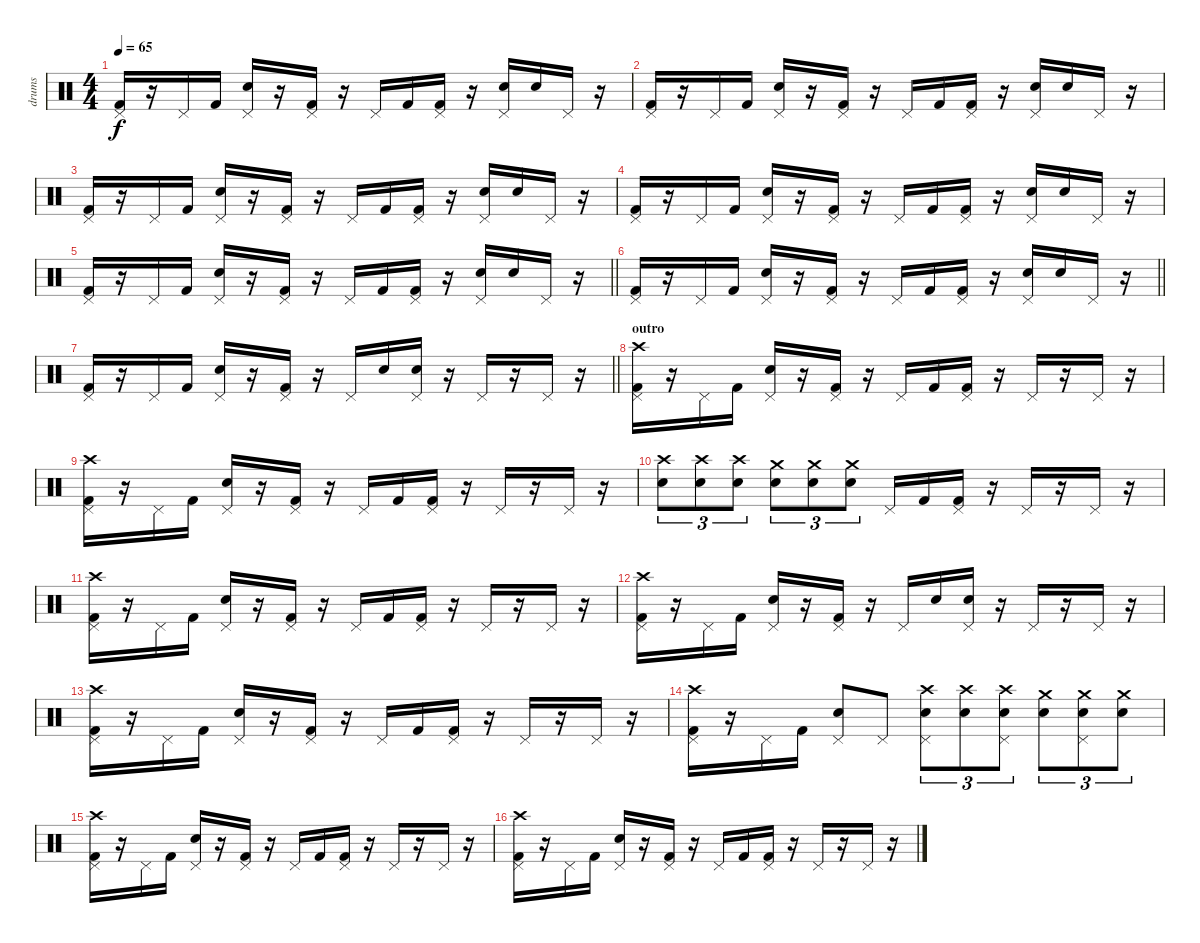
\track ("drums" "drums") {instrument percussion}
\staff {score}
\articulation defaults
\ts (4 4)
\tempo 65
\clef neutral
\ks c
("Kick (hit) 2" "Pedal Hi-Hat (hit)").16{dy f} r.16 "Pedal Hi-Hat (hit)".16 "Kick (hit) 2".16 ("Electric Snare (hit)" "Pedal Hi-Hat (hit)").16 r.16 ("Kick (hit) 2" "Pedal Hi-Hat (hit)").16 r.16 "Pedal Hi-Hat (hit)".16 "Kick (hit) 2".16 ("Kick (hit) 2" "Pedal Hi-Hat (hit)").16 r.16 ("Electric Snare (hit)" "Pedal Hi-Hat (hit)").16 "Electric Snare (hit)".16 "Pedal Hi-Hat (hit)".16 r.16 |
("Kick (hit) 2" "Pedal Hi-Hat (hit)").16 r.16 "Pedal Hi-Hat (hit)".16 "Kick (hit) 2".16 ("Electric Snare (hit)" "Pedal Hi-Hat (hit)").16 r.16 ("Kick (hit) 2" "Pedal Hi-Hat (hit)").16 r.16 "Pedal Hi-Hat (hit)".16 "Kick (hit) 2".16 ("Kick (hit) 2" "Pedal Hi-Hat (hit)").16 r.16 ("Electric Snare (hit)" "Pedal Hi-Hat (hit)").16 "Electric Snare (hit)".16 "Pedal Hi-Hat (hit)".16 r.16 |
("Kick (hit) 2" "Pedal Hi-Hat (hit)").16 r.16 "Pedal Hi-Hat (hit)".16 "Kick (hit) 2".16 ("Electric Snare (hit)" "Pedal Hi-Hat (hit)").16 r.16 ("Kick (hit) 2" "Pedal Hi-Hat (hit)").16 r.16 "Pedal Hi-Hat (hit)".16 "Kick (hit) 2".16 ("Kick (hit) 2" "Pedal Hi-Hat (hit)").16 r.16 ("Electric Snare (hit)" "Pedal Hi-Hat (hit)").16 "Electric Snare (hit)".16 "Pedal Hi-Hat (hit)".16 r.16 |
("Kick (hit) 2" "Pedal Hi-Hat (hit)").16 r.16 "Pedal Hi-Hat (hit)".16 "Kick (hit) 2".16 ("Electric Snare (hit)" "Pedal Hi-Hat (hit)").16 r.16 ("Kick (hit) 2" "Pedal Hi-Hat (hit)").16 r.16 "Pedal Hi-Hat (hit)".16 "Kick (hit) 2".16 ("Kick (hit) 2" "Pedal Hi-Hat (hit)").16 r.16 ("Electric Snare (hit)" "Pedal Hi-Hat (hit)").16 "Electric Snare (hit)".16 "Pedal Hi-Hat (hit)".16 r.16 |
\barLineRight lightlight
("Kick (hit) 2" "Pedal Hi-Hat (hit)").16 r.16 "Pedal Hi-Hat (hit)".16 "Kick (hit) 2".16 ("Electric Snare (hit)" "Pedal Hi-Hat (hit)").16 r.16 ("Kick (hit) 2" "Pedal Hi-Hat (hit)").16 r.16 "Pedal Hi-Hat (hit)".16 "Kick (hit) 2".16 ("Kick (hit) 2" "Pedal Hi-Hat (hit)").16 r.16 ("Electric Snare (hit)" "Pedal Hi-Hat (hit)").16 "Electric Snare (hit)".16 "Pedal Hi-Hat (hit)".16 r.16 |
\barLineRight lightlight
("Kick (hit) 2" "Pedal Hi-Hat (hit)").16 r.16 "Pedal Hi-Hat (hit)".16 "Kick (hit) 2".16 ("Electric Snare (hit)" "Pedal Hi-Hat (hit)").16 r.16 ("Kick (hit) 2" "Pedal Hi-Hat (hit)").16 r.16 "Pedal Hi-Hat (hit)".16 "Kick (hit) 2".16 ("Kick (hit) 2" "Pedal Hi-Hat (hit)").16 r.16 ("Electric Snare (hit)" "Pedal Hi-Hat (hit)").16 "Electric Snare (hit)".16 "Pedal Hi-Hat (hit)".16 r.16 |
\barLineRight lightlight
("Kick (hit) 2" "Pedal Hi-Hat (hit)").16 r.16 "Pedal Hi-Hat (hit)".16 "Kick (hit) 2".16 ("Electric Snare (hit)" "Pedal Hi-Hat (hit)").16 r.16 ("Kick (hit) 2" "Pedal Hi-Hat (hit)").16 r.16 "Pedal Hi-Hat (hit)".16 "Electric Snare (hit)".16 ("Electric Snare (hit)" "Pedal Hi-Hat (hit)").16 r.16 "Pedal Hi-Hat (hit)".16 r.16 "Pedal Hi-Hat (hit)".16 r.16 |
\section ("" "outro")
("Kick (hit) 2" "Pedal Hi-Hat (hit)" "Crash high (hit)").16 r.16 "Pedal Hi-Hat (hit)".16 "Kick (hit) 2".16 ("Electric Snare (hit)" "Pedal Hi-Hat (hit)").16 r.16 ("Kick (hit) 2" "Pedal Hi-Hat (hit)").16 r.16 "Pedal Hi-Hat (hit)".16 "Kick (hit) 2".16 ("Kick (hit) 2" "Pedal Hi-Hat (hit)").16 r.16 "Pedal Hi-Hat (hit)".16 r.16 "Pedal Hi-Hat (hit)".16 r.16 |
("Kick (hit) 2" "Pedal Hi-Hat (hit)" "Crash high (hit)").16 r.16 "Pedal Hi-Hat (hit)".16 "Kick (hit) 2".16 ("Electric Snare (hit)" "Pedal Hi-Hat (hit)").16 r.16 ("Kick (hit) 2" "Pedal Hi-Hat (hit)").16 r.16 "Pedal Hi-Hat (hit)".16 "Kick (hit) 2".16 ("Kick (hit) 2" "Pedal Hi-Hat (hit)").16 r.16 "Pedal Hi-Hat (hit)".16 r.16 "Pedal Hi-Hat (hit)".16 r.16 |
("Electric Snare (hit)" "Crash high (hit)").8{tu (3 2)} ("Electric Snare (hit)" "Crash high (hit)").8{tu (3 2)} ("Electric Snare (hit)" "Crash high (hit)").8{tu (3 2)} ("Electric Snare (hit)" "Crash medium (hit)").8{tu (3 2)} ("Electric Snare (hit)" "Crash medium (hit)").8{tu (3 2)} ("Electric Snare (hit)" "Crash medium (hit)").8{tu (3 2)} "Pedal Hi-Hat (hit)".16 "Kick (hit) 2".16 ("Kick (hit) 2" "Pedal Hi-Hat (hit)").16 r.16 "Pedal Hi-Hat (hit)".16 r.16 "Pedal Hi-Hat (hit)".16 r.16 |
("Kick (hit) 2" "Pedal Hi-Hat (hit)" "Crash high (hit)").16 r.16 "Pedal Hi-Hat (hit)".16 "Kick (hit) 2".16 ("Electric Snare (hit)" "Pedal Hi-Hat (hit)").16 r.16 ("Kick (hit) 2" "Pedal Hi-Hat (hit)").16 r.16 "Pedal Hi-Hat (hit)".16 "Kick (hit) 2".16 ("Kick (hit) 2" "Pedal Hi-Hat (hit)").16 r.16 "Pedal Hi-Hat (hit)".16 r.16 "Pedal Hi-Hat (hit)".16 r.16 |
("Kick (hit) 2" "Pedal Hi-Hat (hit)" "Crash high (hit)").16 r.16 "Pedal Hi-Hat (hit)".16 "Kick (hit) 2".16 ("Electric Snare (hit)" "Pedal Hi-Hat (hit)").16 r.16 ("Kick (hit) 2" "Pedal Hi-Hat (hit)").16 r.16 "Pedal Hi-Hat (hit)".16 "Electric Snare (hit)".16 ("Electric Snare (hit)" "Pedal Hi-Hat (hit)").16 r.16 "Pedal Hi-Hat (hit)".16 r.16 "Pedal Hi-Hat (hit)".16 r.16 |
("Kick (hit) 2" "Pedal Hi-Hat (hit)" "Crash high (hit)").16 r.16 "Pedal Hi-Hat (hit)".16 "Kick (hit) 2".16 ("Electric Snare (hit)" "Pedal Hi-Hat (hit)").16 r.16 ("Kick (hit) 2" "Pedal Hi-Hat (hit)").16 r.16 "Pedal Hi-Hat (hit)".16 "Kick (hit) 2".16 ("Kick (hit) 2" "Pedal Hi-Hat (hit)").16 r.16 "Pedal Hi-Hat (hit)".16 r.16 "Pedal Hi-Hat (hit)".16 r.16 |
("Kick (hit) 2" "Pedal Hi-Hat (hit)" "Crash high (hit)").16 r.16 "Pedal Hi-Hat (hit)".16 "Kick (hit) 2".16 ("Electric Snare (hit)" "Pedal Hi-Hat (hit)").8 "Pedal Hi-Hat (hit)".8 ("Electric Snare (hit)" "Pedal Hi-Hat (hit)" "Crash high (hit)").8{tu (3 2)} ("Electric Snare (hit)" "Crash high (hit)").8{tu (3 2)} ("Electric Snare (hit)" "Pedal Hi-Hat (hit)" "Crash high (hit)").8{tu (3 2)} ("Electric Snare (hit)" "Crash medium (hit)").8{tu (3 2)} ("Electric Snare (hit)" "Pedal Hi-Hat (hit)" "Crash medium (hit)").8{tu (3 2)} ("Electric Snare (hit)" "Crash medium (hit)").8{tu (3 2)} |
("Kick (hit) 2" "Pedal Hi-Hat (hit)" "Crash high (hit)").16 r.16 "Pedal Hi-Hat (hit)".16 "Kick (hit) 2".16 ("Electric Snare (hit)" "Pedal Hi-Hat (hit)").16 r.16 ("Kick (hit) 2" "Pedal Hi-Hat (hit)").16 r.16 "Pedal Hi-Hat (hit)".16 "Kick (hit) 2".16 ("Kick (hit) 2" "Pedal Hi-Hat (hit)").16 r.16 "Pedal Hi-Hat (hit)".16 r.16 "Pedal Hi-Hat (hit)".16 r.16 |
("Kick (hit) 2" "Pedal Hi-Hat (hit)" "Crash high (hit)").16 r.16 "Pedal Hi-Hat (hit)".16 "Kick (hit) 2".16 ("Electric Snare (hit)" "Pedal Hi-Hat (hit)").16 r.16 ("Kick (hit) 2" "Pedal Hi-Hat (hit)").16 r.16 "Pedal Hi-Hat (hit)".16 "Kick (hit) 2".16 ("Kick (hit) 2" "Pedal Hi-Hat (hit)").16 r.16 "Pedal Hi-Hat (hit)".16 r.16 "Pedal Hi-Hat (hit)".16 r.16
